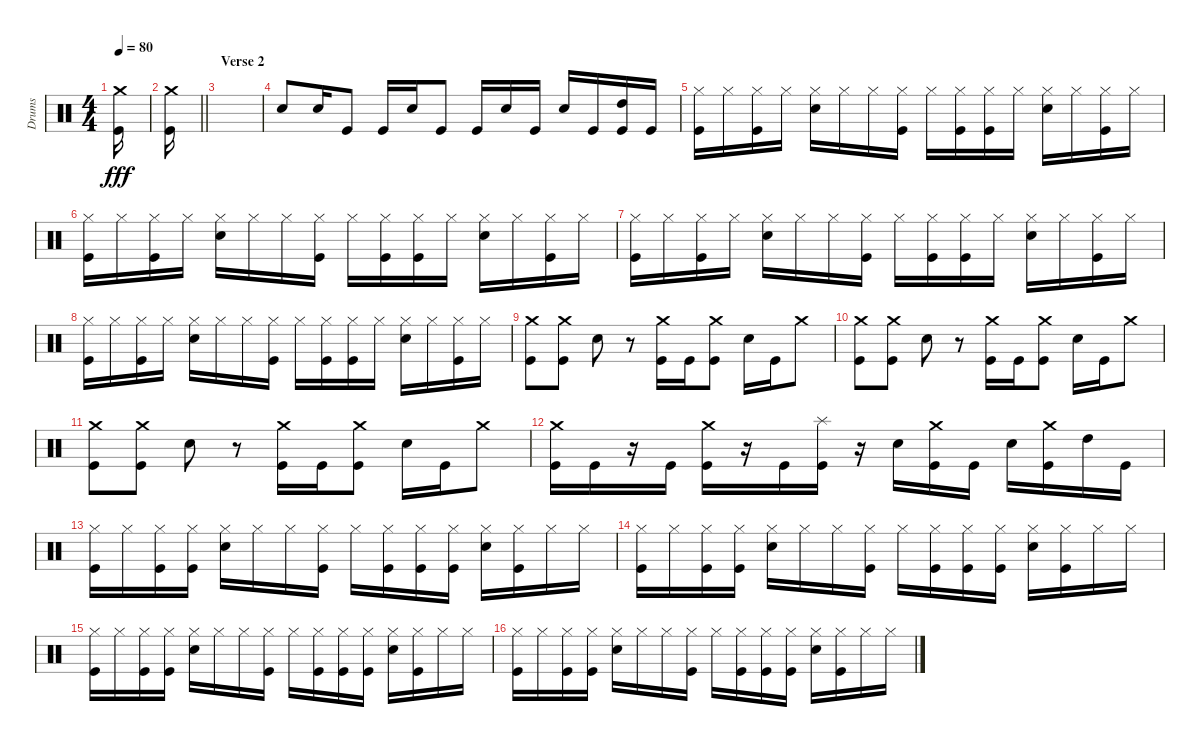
\track ("Drums" "Drums") {instrument percussion}
\staff {score}
\articulation defaults
\ts (4 4)
\tempo 80
\clef neutral
\ks c
("Kick (hit)" "Crash medium (hit)").16{dy fff} |
\barLineRight lightlight
("Kick (hit)" "Crash medium (hit)").16 |
\section ("" "Verse 2")
|
"Snare (hit) 2".8 "Snare (hit) 2".16 "Kick (hit)".8 "Kick (hit)".16 "Snare (hit) 2".16 "Kick (hit)".8 "Kick (hit)".16 "Snare (hit) 2".16 "Kick (hit)".16 "Snare (hit) 2".16 "Kick (hit)".16 ("Kick (hit)" "High Tom (hit)").16 "Kick (hit)".16 |
("Hi-Hat (closed)" "Kick (hit)").16 "Hi-Hat (closed)".16 ("Hi-Hat (closed)" "Kick (hit)").16 "Hi-Hat (closed)".16 ("Hi-Hat (closed)" "Snare (hit) 2").16 "Hi-Hat (closed)".16 "Hi-Hat (closed)".16 ("Hi-Hat (closed)" "Kick (hit)").16 "Hi-Hat (closed)".16 ("Hi-Hat (closed)" "Kick (hit)").16 ("Hi-Hat (closed)" "Kick (hit)").16 "Hi-Hat (closed)".16 ("Hi-Hat (closed)" "Snare (hit) 2").16 "Hi-Hat (closed)".16 ("Hi-Hat (closed)" "Kick (hit)").16 "Hi-Hat (closed)".16 |
("Hi-Hat (closed)" "Kick (hit)").16 "Hi-Hat (closed)".16 ("Hi-Hat (closed)" "Kick (hit)").16 "Hi-Hat (closed)".16 ("Hi-Hat (closed)" "Snare (hit) 2").16 "Hi-Hat (closed)".16 "Hi-Hat (closed)".16 ("Hi-Hat (closed)" "Kick (hit)").16 "Hi-Hat (closed)".16 ("Hi-Hat (closed)" "Kick (hit)").16 ("Hi-Hat (closed)" "Kick (hit)").16 "Hi-Hat (closed)".16 ("Hi-Hat (closed)" "Snare (hit) 2").16 "Hi-Hat (closed)".16 ("Hi-Hat (closed)" "Kick (hit)").16 "Hi-Hat (closed)".16 |
("Hi-Hat (closed)" "Kick (hit)").16 "Hi-Hat (closed)".16 ("Hi-Hat (closed)" "Kick (hit)").16 "Hi-Hat (closed)".16 ("Hi-Hat (closed)" "Snare (hit) 2").16 "Hi-Hat (closed)".16 "Hi-Hat (closed)".16 ("Hi-Hat (closed)" "Kick (hit)").16 "Hi-Hat (closed)".16 ("Hi-Hat (closed)" "Kick (hit)").16 ("Hi-Hat (closed)" "Kick (hit)").16 "Hi-Hat (closed)".16 ("Hi-Hat (closed)" "Snare (hit) 2").16 "Hi-Hat (closed)".16 ("Hi-Hat (closed)" "Kick (hit)").16 "Hi-Hat (closed)".16 |
("Hi-Hat (closed)" "Kick (hit)").16 "Hi-Hat (closed)".16 ("Hi-Hat (closed)" "Kick (hit)").16 "Hi-Hat (closed)".16 ("Hi-Hat (closed)" "Snare (hit) 2").16 "Hi-Hat (closed)".16 "Hi-Hat (closed)".16 ("Hi-Hat (closed)" "Kick (hit)").16 "Hi-Hat (closed)".16 ("Hi-Hat (closed)" "Kick (hit)").16 ("Hi-Hat (closed)" "Kick (hit)").16 "Hi-Hat (closed)".16 ("Hi-Hat (closed)" "Snare (hit) 2").16 "Hi-Hat (closed)".16 ("Hi-Hat (closed)" "Kick (hit)").16 "Hi-Hat (closed)".16 |
("Crash medium (hit)" "Kick (hit)").8 ("Crash medium (hit)" "Kick (hit)").8 "Snare (hit) 2".8 r.8 ("Crash medium (hit)" "Kick (hit)").16 "Kick (hit)".16 ("Crash medium (hit)" "Kick (hit)").8 "Snare (hit) 2".16 "Kick (hit)".16 "Crash medium (hit)".8 |
("Crash medium (hit)" "Kick (hit)").8 ("Crash medium (hit)" "Kick (hit)").8 "Snare (hit) 2".8 r.8 ("Crash medium (hit)" "Kick (hit)").16 "Kick (hit)".16 ("Crash medium (hit)" "Kick (hit)").8 "Snare (hit) 2".16 "Kick (hit)".16 "Crash medium (hit)".8 |
("Crash medium (hit)" "Kick (hit)").8 ("Crash medium (hit)" "Kick (hit)").8 "Snare (hit) 2".8 r.8 ("Crash medium (hit)" "Kick (hit)").16 "Kick (hit)".16 ("Crash medium (hit)" "Kick (hit)").8 "Snare (hit) 2".16 "Kick (hit)".16 "Crash medium (hit)".8 |
("Kick (hit)" "Crash medium (hit)").16 "Kick (hit)".16 r.16 "Kick (hit)".16 ("Kick (hit)" "Crash medium (hit)").16 r.16 "Kick (hit)".16 ("Kick (hit)" "Splash (hit)").16 r.16 "Snare (hit) 2".16 ("Kick (hit)" "Crash medium (hit)").16 "Kick (hit)".16 "Snare (hit) 2".16 ("Kick (hit)" "Crash medium (hit)").16 "High Tom (hit)".16 "Kick (hit)".16 |
("Hi-Hat (closed)" "Kick (hit)").16 "Hi-Hat (closed)".16 ("Hi-Hat (closed)" "Kick (hit)").16 ("Hi-Hat (closed)" "Kick (hit)").16 ("Hi-Hat (closed)" "Snare (hit) 2").16 "Hi-Hat (closed)".16 "Hi-Hat (closed)".16 ("Hi-Hat (closed)" "Kick (hit)").16 "Hi-Hat (closed)".16 ("Hi-Hat (closed)" "Kick (hit)").16 ("Hi-Hat (closed)" "Kick (hit)").16 ("Hi-Hat (closed)" "Kick (hit)").16 ("Hi-Hat (closed)" "Snare (hit) 2").16 ("Hi-Hat (closed)" "Kick (hit)").16 "Hi-Hat (closed)".16 "Hi-Hat (closed)".16 |
("Hi-Hat (closed)" "Kick (hit)").16 "Hi-Hat (closed)".16 ("Hi-Hat (closed)" "Kick (hit)").16 ("Hi-Hat (closed)" "Kick (hit)").16 ("Hi-Hat (closed)" "Snare (hit) 2").16 "Hi-Hat (closed)".16 "Hi-Hat (closed)".16 ("Hi-Hat (closed)" "Kick (hit)").16 "Hi-Hat (closed)".16 ("Hi-Hat (closed)" "Kick (hit)").16 ("Hi-Hat (closed)" "Kick (hit)").16 ("Hi-Hat (closed)" "Kick (hit)").16 ("Hi-Hat (closed)" "Snare (hit) 2").16 ("Hi-Hat (closed)" "Kick (hit)").16 "Hi-Hat (closed)".16 "Hi-Hat (closed)".16 |
("Hi-Hat (closed)" "Kick (hit)").16 "Hi-Hat (closed)".16 ("Hi-Hat (closed)" "Kick (hit)").16 ("Hi-Hat (closed)" "Kick (hit)").16 ("Hi-Hat (closed)" "Snare (hit) 2").16 "Hi-Hat (closed)".16 "Hi-Hat (closed)".16 ("Hi-Hat (closed)" "Kick (hit)").16 "Hi-Hat (closed)".16 ("Hi-Hat (closed)" "Kick (hit)").16 ("Hi-Hat (closed)" "Kick (hit)").16 ("Hi-Hat (closed)" "Kick (hit)").16 ("Hi-Hat (closed)" "Snare (hit) 2").16 ("Hi-Hat (closed)" "Kick (hit)").16 "Hi-Hat (closed)".16 "Hi-Hat (closed)".16 |
("Hi-Hat (closed)" "Kick (hit)").16 "Hi-Hat (closed)".16 ("Hi-Hat (closed)" "Kick (hit)").16 ("Hi-Hat (closed)" "Kick (hit)").16 ("Hi-Hat (closed)" "Snare (hit) 2").16 "Hi-Hat (closed)".16 "Hi-Hat (closed)".16 ("Hi-Hat (closed)" "Kick (hit)").16 "Hi-Hat (closed)".16 ("Hi-Hat (closed)" "Kick (hit)").16 ("Hi-Hat (closed)" "Kick (hit)").16 ("Hi-Hat (closed)" "Kick (hit)").16 ("Hi-Hat (closed)" "Snare (hit) 2").16 ("Hi-Hat (closed)" "Kick (hit)").16 "Hi-Hat (closed)".16 "Hi-Hat (closed)".16
